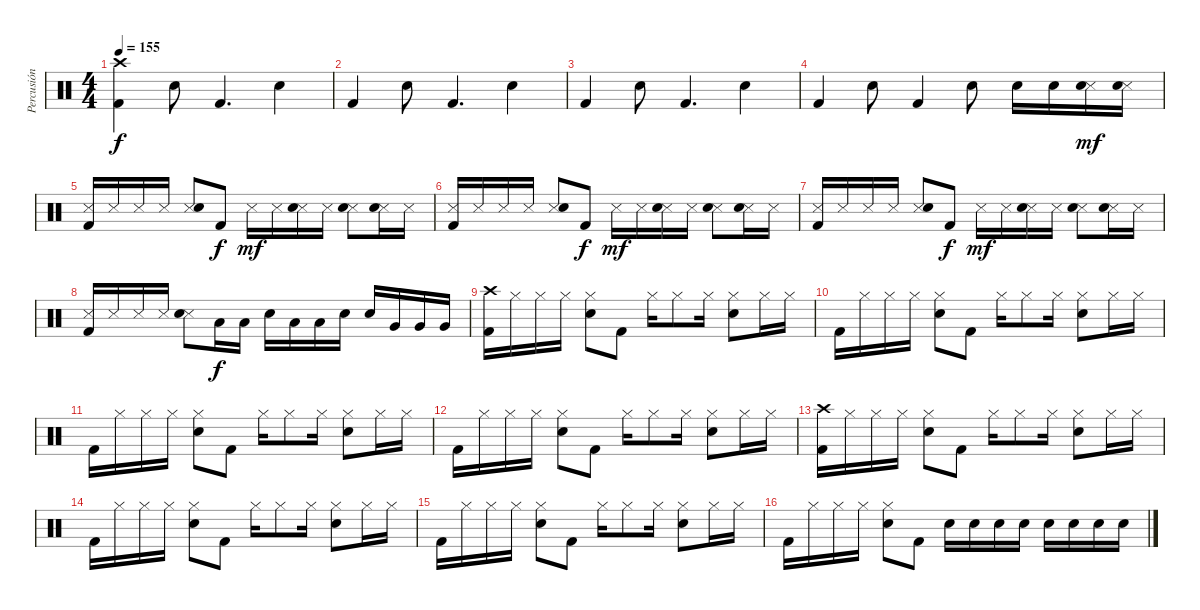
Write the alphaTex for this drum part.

\track ("Percusión" "Percusión") {instrument percussion}
\staff {score}
\articulation defaults
\ts (4 4)
\tempo 155
\clef neutral
\ks c
("Crash high (hit)" "Kick (hit) 2").4{dy f} "Snare (hit) 2".8 "Kick (hit) 2".4{d} "Snare (hit) 2".4 |
"Kick (hit) 2".4 "Snare (hit) 2".8 "Kick (hit) 2".4{d} "Snare (hit) 2".4 |
"Kick (hit) 2".4 "Snare (hit) 2".8 "Kick (hit) 2".4{d} "Snare (hit) 2".4 |
"Kick (hit) 2".4 "Snare (hit) 2".8 "Kick (hit) 2".4 "Snare (hit) 2".8 "Snare (hit) 2".16 "Snare (hit) 2".16 ("Metronome (hit)" "Snare (hit) 2").16{dy mf} ("Metronome (hit)" "Snare (hit) 2").16 |
("Metronome (hit)" "Kick (hit) 2").16 "Metronome (hit)".16 "Metronome (hit)".16 "Metronome (hit)".16 ("Metronome (hit)" "Snare (hit) 2").8 "Kick (hit) 2".8{dy f} "Metronome (hit)".16{dy mf} "Metronome (hit)".16 ("Metronome (hit)" "Hand Clap (hit)").16 "Metronome (hit)".16 ("Metronome (hit)" "Snare (hit) 2").8 ("Metronome (hit)" "Hand Clap (hit)").16 "Metronome (hit)".16 |
("Metronome (hit)" "Kick (hit) 2").16 "Metronome (hit)".16 "Metronome (hit)".16 "Metronome (hit)".16 ("Metronome (hit)" "Snare (hit) 2").8 "Kick (hit) 2".8{dy f} "Metronome (hit)".16{dy mf} "Metronome (hit)".16 ("Metronome (hit)" "Hand Clap (hit)").16 "Metronome (hit)".16 ("Metronome (hit)" "Snare (hit) 2").8 ("Metronome (hit)" "Hand Clap (hit)").16 "Metronome (hit)".16 |
("Metronome (hit)" "Kick (hit) 2").16 "Metronome (hit)".16 "Metronome (hit)".16 "Metronome (hit)".16 ("Metronome (hit)" "Snare (hit) 2").8 "Kick (hit) 2".8{dy f} "Metronome (hit)".16{dy mf} "Metronome (hit)".16 ("Metronome (hit)" "Hand Clap (hit)").16 "Metronome (hit)".16 ("Metronome (hit)" "Snare (hit) 2").8 ("Metronome (hit)" "Hand Clap (hit)").16 "Metronome (hit)".16 |
("Metronome (hit)" "Kick (hit) 2").16 "Metronome (hit)".16 "Metronome (hit)".16 "Metronome (hit)".16 ("Metronome (hit)" "Snare (hit) 2").8 "Low Tom (hit)".16{dy f} "Low Tom (hit)".16 "Snare (hit) 2".16 "Low Tom (hit)".16 "Low Tom (hit)".16 "Snare (hit) 2".16 "Snare (hit) 2".16 "Very Low Tom (hit)".16 "Very Low Tom (hit)".16 "Very Low Tom (hit)".16 |
("Crash high (hit)" "Kick (hit) 2").16 "Hi-Hat (closed)".16 "Hi-Hat (closed)".16 "Hi-Hat (closed)".16 ("Hi-Hat (closed)" "Snare (hit) 2").8 "Kick (hit) 2".8 "Hi-Hat (closed)".16 "Hi-Hat (closed)".8 "Hi-Hat (closed)".16 ("Hi-Hat (closed)" "Snare (hit) 2").8 "Hi-Hat (closed)".16 "Hi-Hat (closed)".16 |
"Kick (hit) 2".16 "Hi-Hat (closed)".16 "Hi-Hat (closed)".16 "Hi-Hat (closed)".16 ("Hi-Hat (closed)" "Snare (hit) 2").8 "Kick (hit) 2".8 "Hi-Hat (closed)".16 "Hi-Hat (closed)".8 "Hi-Hat (closed)".16 ("Hi-Hat (closed)" "Snare (hit) 2").8 "Hi-Hat (closed)".16 "Hi-Hat (closed)".16 |
"Kick (hit) 2".16 "Hi-Hat (closed)".16 "Hi-Hat (closed)".16 "Hi-Hat (closed)".16 ("Hi-Hat (closed)" "Snare (hit) 2").8 "Kick (hit) 2".8 "Hi-Hat (closed)".16 "Hi-Hat (closed)".8 "Hi-Hat (closed)".16 ("Hi-Hat (closed)" "Snare (hit) 2").8 "Hi-Hat (closed)".16 "Hi-Hat (closed)".16 |
"Kick (hit) 2".16 "Hi-Hat (closed)".16 "Hi-Hat (closed)".16 "Hi-Hat (closed)".16 ("Hi-Hat (closed)" "Snare (hit) 2").8 "Kick (hit) 2".8 "Hi-Hat (closed)".16 "Hi-Hat (closed)".8 "Hi-Hat (closed)".16 ("Hi-Hat (closed)" "Snare (hit) 2").8 "Hi-Hat (closed)".16 "Hi-Hat (closed)".16 |
("Crash high (hit)" "Kick (hit) 2").16 "Hi-Hat (closed)".16 "Hi-Hat (closed)".16 "Hi-Hat (closed)".16 ("Hi-Hat (closed)" "Snare (hit) 2").8 "Kick (hit) 2".8 "Hi-Hat (closed)".16 "Hi-Hat (closed)".8 "Hi-Hat (closed)".16 ("Hi-Hat (closed)" "Snare (hit) 2").8 "Hi-Hat (closed)".16 "Hi-Hat (closed)".16 |
"Kick (hit) 2".16 "Hi-Hat (closed)".16 "Hi-Hat (closed)".16 "Hi-Hat (closed)".16 ("Hi-Hat (closed)" "Snare (hit) 2").8 "Kick (hit) 2".8 "Hi-Hat (closed)".16 "Hi-Hat (closed)".8 "Hi-Hat (closed)".16 ("Hi-Hat (closed)" "Snare (hit) 2").8 "Hi-Hat (closed)".16 "Hi-Hat (closed)".16 |
"Kick (hit) 2".16 "Hi-Hat (closed)".16 "Hi-Hat (closed)".16 "Hi-Hat (closed)".16 ("Hi-Hat (closed)" "Snare (hit) 2").8 "Kick (hit) 2".8 "Hi-Hat (closed)".16 "Hi-Hat (closed)".8 "Hi-Hat (closed)".16 ("Hi-Hat (closed)" "Snare (hit) 2").8 "Hi-Hat (closed)".16 "Hi-Hat (closed)".16 |
"Kick (hit) 2".16 "Hi-Hat (closed)".16 "Hi-Hat (closed)".16 "Hi-Hat (closed)".16 ("Hi-Hat (closed)" "Snare (hit) 2").8 "Kick (hit) 2".8 "Snare (hit) 2".16 "Snare (hit) 2".16 "Snare (hit) 2".16 "Snare (hit) 2".16 "Snare (hit) 2".16 "Snare (hit) 2".16 "Snare (hit) 2".16 "Snare (hit) 2".16
